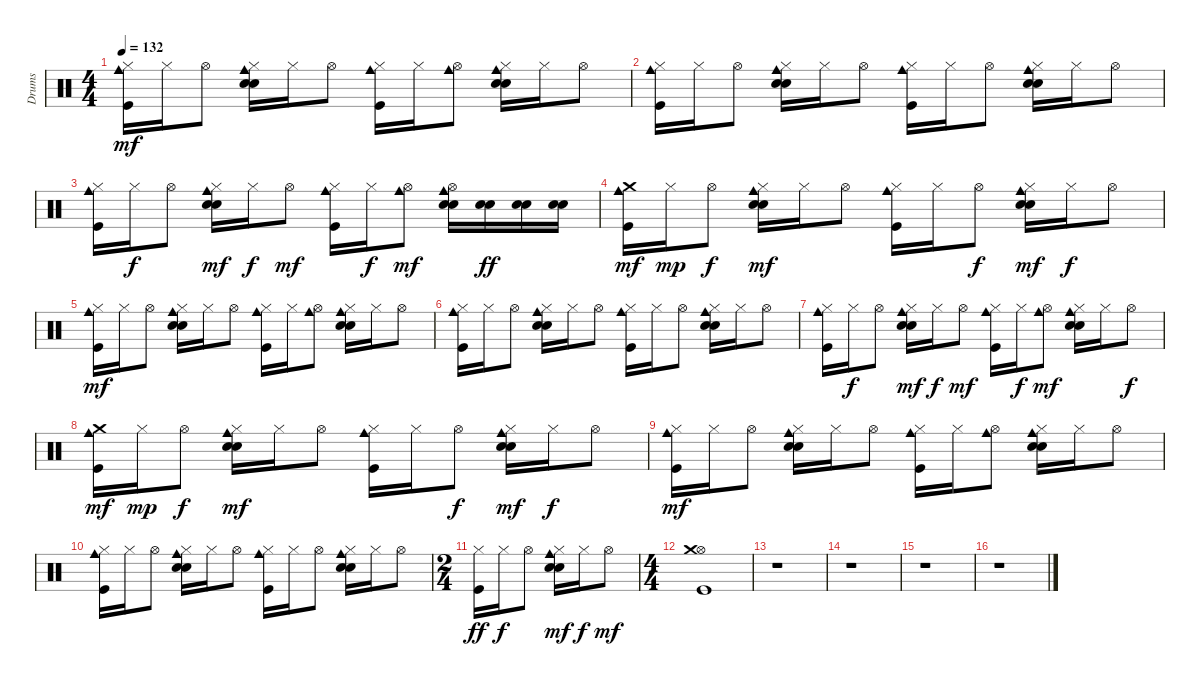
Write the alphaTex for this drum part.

\track ("Drums" "Drums") {instrument percussion}
\staff {score}
\articulation defaults
\ts (4 4)
\tempo 132
\clef neutral
\ks c
("Hi-Hat (closed)" "Kick (hit)" "Cowbell medium (hit)").16{dy mf} "Hi-Hat (closed)".16 "Hi-Hat (open)".8 ("Hi-Hat (closed)" "Electric Snare (hit)" "Snare (hit) 2" "Cowbell medium (hit)").16 "Hi-Hat (closed)".16 "Hi-Hat (open)".8 ("Hi-Hat (closed)" "Kick (hit)" "Cowbell medium (hit)").16 "Hi-Hat (closed)".16 ("Hi-Hat (open)" "Cowbell medium (hit)").8 ("Hi-Hat (closed)" "Electric Snare (hit)" "Snare (hit) 2" "Cowbell medium (hit)").16 "Hi-Hat (closed)".16 "Hi-Hat (open)".8 |
("Hi-Hat (closed)" "Kick (hit)" "Cowbell medium (hit)").16 "Hi-Hat (closed)".16 "Hi-Hat (open)".8 ("Hi-Hat (closed)" "Electric Snare (hit)" "Snare (hit) 2" "Cowbell medium (hit)").16 "Hi-Hat (closed)".16 "Hi-Hat (open)".8 ("Hi-Hat (closed)" "Kick (hit)" "Cowbell medium (hit)").16 "Hi-Hat (closed)".16 "Hi-Hat (open)".8 ("Hi-Hat (closed)" "Electric Snare (hit)" "Snare (hit) 2" "Cowbell medium (hit)").16 "Hi-Hat (closed)".16 "Hi-Hat (open)".8 |
("Hi-Hat (closed)" "Kick (hit)" "Cowbell medium (hit)").16 "Hi-Hat (closed)".16{dy f} "Hi-Hat (open)".8 ("Hi-Hat (closed)" "Electric Snare (hit)" "Snare (hit) 2" "Cowbell medium (hit)").16{dy mf} "Hi-Hat (closed)".16{dy f} "Hi-Hat (open)".8{dy mf} ("Hi-Hat (closed)" "Kick (hit)" "Cowbell medium (hit)").16 "Hi-Hat (closed)".16{dy f} ("Hi-Hat (open)" "Cowbell medium (hit)").8{dy mf} ("Hi-Hat (open)" "Electric Snare (hit)" "Snare (hit) 2" "Cowbell medium (hit)").16 ("Electric Snare (hit)" "Snare (hit) 2").16{dy ff} ("Electric Snare (hit)" "Snare (hit) 2").16 ("Electric Snare (hit)" "Snare (hit) 2").16 |
("Kick (hit)" "Cowbell medium (hit)" "Crash medium (hit)").16{dy mf} "Hi-Hat (closed)".16{dy mp} "Hi-Hat (open)".8{dy f} ("Hi-Hat (closed)" "Electric Snare (hit)" "Snare (hit) 2" "Cowbell medium (hit)").16{dy mf} "Hi-Hat (closed)".16 "Hi-Hat (open)".8 ("Hi-Hat (closed)" "Kick (hit)" "Cowbell medium (hit)").16 "Hi-Hat (closed)".16 "Hi-Hat (open)".8{dy f} ("Hi-Hat (closed)" "Electric Snare (hit)" "Snare (hit) 2" "Cowbell medium (hit)").16{dy mf} "Hi-Hat (closed)".16{dy f} "Hi-Hat (open)".8 |
("Hi-Hat (closed)" "Kick (hit)" "Cowbell medium (hit)").16{dy mf} "Hi-Hat (closed)".16 "Hi-Hat (open)".8 ("Hi-Hat (closed)" "Electric Snare (hit)" "Snare (hit) 2" "Cowbell medium (hit)").16 "Hi-Hat (closed)".16 "Hi-Hat (open)".8 ("Hi-Hat (closed)" "Kick (hit)" "Cowbell medium (hit)").16 "Hi-Hat (closed)".16 ("Hi-Hat (open)" "Cowbell medium (hit)").8 ("Hi-Hat (closed)" "Electric Snare (hit)" "Snare (hit) 2" "Cowbell medium (hit)").16 "Hi-Hat (closed)".16 "Hi-Hat (open)".8 |
("Hi-Hat (closed)" "Kick (hit)" "Cowbell medium (hit)").16 "Hi-Hat (closed)".16 "Hi-Hat (open)".8 ("Hi-Hat (closed)" "Electric Snare (hit)" "Snare (hit) 2" "Cowbell medium (hit)").16 "Hi-Hat (closed)".16 "Hi-Hat (open)".8 ("Hi-Hat (closed)" "Kick (hit)" "Cowbell medium (hit)").16 "Hi-Hat (closed)".16 "Hi-Hat (open)".8 ("Hi-Hat (closed)" "Electric Snare (hit)" "Snare (hit) 2" "Cowbell medium (hit)").16 "Hi-Hat (closed)".16 "Hi-Hat (open)".8 |
("Hi-Hat (closed)" "Kick (hit)" "Cowbell medium (hit)").16 "Hi-Hat (closed)".16{dy f} "Hi-Hat (open)".8 ("Hi-Hat (closed)" "Electric Snare (hit)" "Snare (hit) 2" "Cowbell medium (hit)").16{dy mf} "Hi-Hat (closed)".16{dy f} "Hi-Hat (open)".8{dy mf} ("Hi-Hat (closed)" "Kick (hit)" "Cowbell medium (hit)").16 "Hi-Hat (closed)".16{dy f} ("Hi-Hat (open)" "Cowbell medium (hit)").8{dy mf} ("Hi-Hat (closed)" "Electric Snare (hit)" "Snare (hit) 2" "Cowbell medium (hit)").16 "Hi-Hat (closed)".16 "Hi-Hat (open)".8{dy f} |
("Kick (hit)" "Cowbell medium (hit)" "Crash medium (hit)").16{dy mf} "Hi-Hat (closed)".16{dy mp} "Hi-Hat (open)".8{dy f} ("Hi-Hat (closed)" "Electric Snare (hit)" "Snare (hit) 2" "Cowbell medium (hit)").16{dy mf} "Hi-Hat (closed)".16 "Hi-Hat (open)".8 ("Hi-Hat (closed)" "Kick (hit)" "Cowbell medium (hit)").16 "Hi-Hat (closed)".16 "Hi-Hat (open)".8{dy f} ("Hi-Hat (closed)" "Electric Snare (hit)" "Snare (hit) 2" "Cowbell medium (hit)").16{dy mf} "Hi-Hat (closed)".16{dy f} "Hi-Hat (open)".8 |
("Hi-Hat (closed)" "Kick (hit)" "Cowbell medium (hit)").16{dy mf} "Hi-Hat (closed)".16 "Hi-Hat (open)".8 ("Hi-Hat (closed)" "Electric Snare (hit)" "Snare (hit) 2" "Cowbell medium (hit)").16 "Hi-Hat (closed)".16 "Hi-Hat (open)".8 ("Hi-Hat (closed)" "Kick (hit)" "Cowbell medium (hit)").16 "Hi-Hat (closed)".16 ("Hi-Hat (open)" "Cowbell medium (hit)").8 ("Hi-Hat (closed)" "Electric Snare (hit)" "Snare (hit) 2" "Cowbell medium (hit)").16 "Hi-Hat (closed)".16 "Hi-Hat (open)".8 |
("Hi-Hat (closed)" "Kick (hit)" "Cowbell medium (hit)").16 "Hi-Hat (closed)".16 "Hi-Hat (open)".8 ("Hi-Hat (closed)" "Electric Snare (hit)" "Snare (hit) 2" "Cowbell medium (hit)").16 "Hi-Hat (closed)".16 "Hi-Hat (open)".8 ("Hi-Hat (closed)" "Kick (hit)" "Cowbell medium (hit)").16 "Hi-Hat (closed)".16 "Hi-Hat (open)".8 ("Hi-Hat (closed)" "Electric Snare (hit)" "Snare (hit) 2" "Cowbell medium (hit)").16 "Hi-Hat (closed)".16 "Hi-Hat (open)".8 |
\ts (2 4)
("Hi-Hat (closed)" "Kick (hit)").16{dy ff} "Hi-Hat (closed)".16{dy f} "Hi-Hat (open)".8 ("Hi-Hat (closed)" "Electric Snare (hit)" "Snare (hit) 2" "Cowbell medium (hit)").16{dy mf} "Hi-Hat (closed)".16{dy f} "Hi-Hat (open)".8{dy mf} |
\ts (4 4)
("Hi-Hat (open)" "Kick (hit)" "Crash medium (hit)").1 |
r.1 |
r.1 |
r.1 |
r.1
